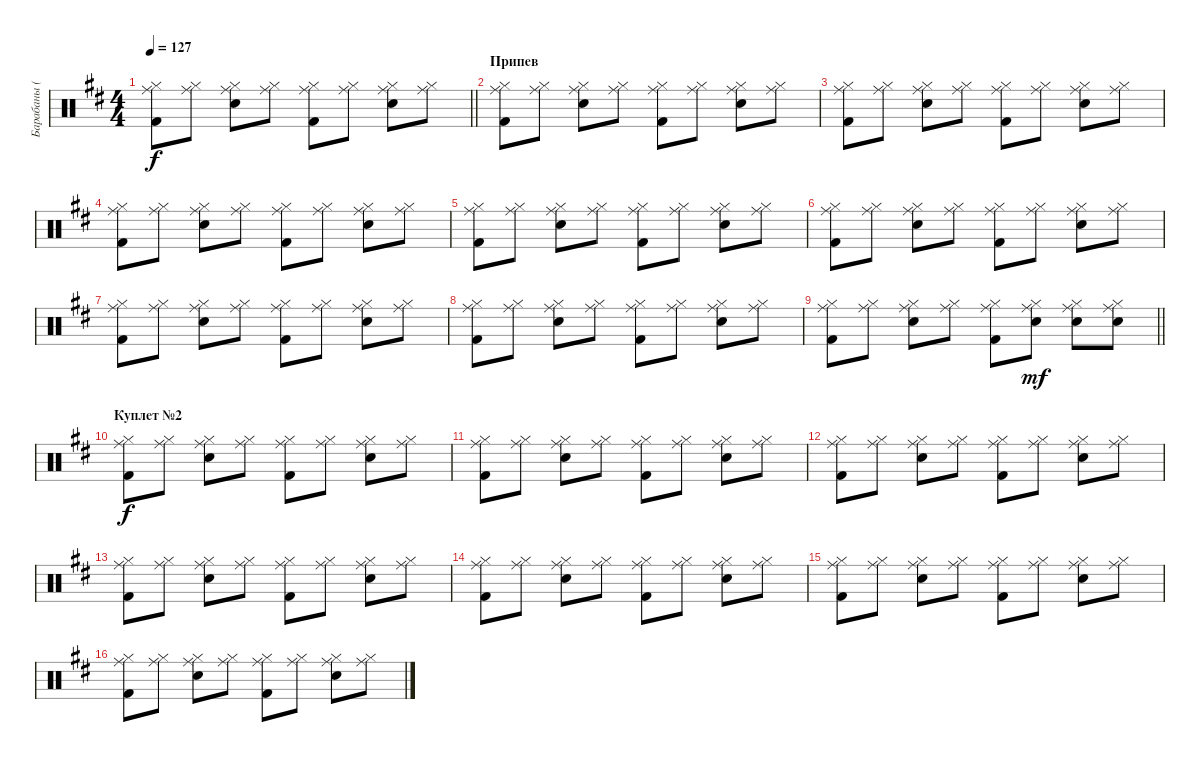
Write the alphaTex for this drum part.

\track ("Барабаны (Е.Летов)" "Барабаны (") {instrument percussion}
\staff {score}
\articulation defaults
\ts (4 4)
\tempo 127
\clef neutral
\barLineRight lightlight
\ks d
("Kick (hit) 2" "Ride (middle)" "Hi-Hat (closed)").8{dy f} ("Ride (middle)" "Hi-Hat (closed)").8 ("Snare (hit) 2" "Ride (middle)" "Hi-Hat (closed)").8 ("Ride (middle)" "Hi-Hat (closed)").8 ("Kick (hit) 2" "Ride (middle)" "Hi-Hat (closed)").8 ("Ride (middle)" "Hi-Hat (closed)").8 ("Snare (hit) 2" "Ride (middle)" "Hi-Hat (closed)").8 ("Ride (middle)" "Hi-Hat (closed)").8 |
\section ("" "Припев")
("Kick (hit) 2" "Ride (middle)" "Hi-Hat (closed)").8 ("Ride (middle)" "Hi-Hat (closed)").8 ("Snare (hit) 2" "Ride (middle)" "Hi-Hat (closed)").8 ("Ride (middle)" "Hi-Hat (closed)").8 ("Kick (hit) 2" "Ride (middle)" "Hi-Hat (closed)").8 ("Ride (middle)" "Hi-Hat (closed)").8 ("Snare (hit) 2" "Ride (middle)" "Hi-Hat (closed)").8 ("Ride (middle)" "Hi-Hat (closed)").8 |
("Kick (hit) 2" "Ride (middle)" "Hi-Hat (closed)").8 ("Ride (middle)" "Hi-Hat (closed)").8 ("Snare (hit) 2" "Ride (middle)" "Hi-Hat (closed)").8 ("Ride (middle)" "Hi-Hat (closed)").8 ("Kick (hit) 2" "Ride (middle)" "Hi-Hat (closed)").8 ("Ride (middle)" "Hi-Hat (closed)").8 ("Snare (hit) 2" "Ride (middle)" "Hi-Hat (closed)").8 ("Ride (middle)" "Hi-Hat (closed)").8 |
("Kick (hit) 2" "Ride (middle)" "Hi-Hat (closed)").8 ("Ride (middle)" "Hi-Hat (closed)").8 ("Snare (hit) 2" "Ride (middle)" "Hi-Hat (closed)").8 ("Ride (middle)" "Hi-Hat (closed)").8 ("Kick (hit) 2" "Ride (middle)" "Hi-Hat (closed)").8 ("Ride (middle)" "Hi-Hat (closed)").8 ("Snare (hit) 2" "Ride (middle)" "Hi-Hat (closed)").8 ("Ride (middle)" "Hi-Hat (closed)").8 |
("Kick (hit) 2" "Ride (middle)" "Hi-Hat (closed)").8 ("Ride (middle)" "Hi-Hat (closed)").8 ("Snare (hit) 2" "Ride (middle)" "Hi-Hat (closed)").8 ("Ride (middle)" "Hi-Hat (closed)").8 ("Kick (hit) 2" "Ride (middle)" "Hi-Hat (closed)").8 ("Ride (middle)" "Hi-Hat (closed)").8 ("Snare (hit) 2" "Ride (middle)" "Hi-Hat (closed)").8 ("Ride (middle)" "Hi-Hat (closed)").8 |
("Kick (hit) 2" "Ride (middle)" "Hi-Hat (closed)").8 ("Ride (middle)" "Hi-Hat (closed)").8 ("Snare (hit) 2" "Ride (middle)" "Hi-Hat (closed)").8 ("Ride (middle)" "Hi-Hat (closed)").8 ("Kick (hit) 2" "Ride (middle)" "Hi-Hat (closed)").8 ("Ride (middle)" "Hi-Hat (closed)").8 ("Snare (hit) 2" "Ride (middle)" "Hi-Hat (closed)").8 ("Ride (middle)" "Hi-Hat (closed)").8 |
("Kick (hit) 2" "Ride (middle)" "Hi-Hat (closed)").8 ("Ride (middle)" "Hi-Hat (closed)").8 ("Snare (hit) 2" "Ride (middle)" "Hi-Hat (closed)").8 ("Ride (middle)" "Hi-Hat (closed)").8 ("Kick (hit) 2" "Ride (middle)" "Hi-Hat (closed)").8 ("Ride (middle)" "Hi-Hat (closed)").8 ("Snare (hit) 2" "Ride (middle)" "Hi-Hat (closed)").8 ("Ride (middle)" "Hi-Hat (closed)").8 |
("Kick (hit) 2" "Ride (middle)" "Hi-Hat (closed)").8 ("Ride (middle)" "Hi-Hat (closed)").8 ("Snare (hit) 2" "Ride (middle)" "Hi-Hat (closed)").8 ("Ride (middle)" "Hi-Hat (closed)").8 ("Kick (hit) 2" "Ride (middle)" "Hi-Hat (closed)").8 ("Ride (middle)" "Hi-Hat (closed)").8 ("Snare (hit) 2" "Ride (middle)" "Hi-Hat (closed)").8 ("Ride (middle)" "Hi-Hat (closed)").8 |
\barLineRight lightlight
("Kick (hit) 2" "Ride (middle)" "Hi-Hat (closed)").8 ("Ride (middle)" "Hi-Hat (closed)").8 ("Snare (hit) 2" "Ride (middle)" "Hi-Hat (closed)").8 ("Ride (middle)" "Hi-Hat (closed)").8 ("Kick (hit) 2" "Ride (middle)" "Hi-Hat (closed)").8 ("Snare (hit) 2" "Ride (middle)" "Hi-Hat (closed)").8{dy mf} ("Snare (hit) 2" "Ride (middle)" "Hi-Hat (closed)").8 ("Snare (hit) 2" "Ride (middle)" "Hi-Hat (closed)").8 |
\section ("" "Куплет №2")
("Kick (hit) 2" "Ride (middle)" "Hi-Hat (closed)").8{dy f} ("Ride (middle)" "Hi-Hat (closed)").8 ("Snare (hit) 2" "Ride (middle)" "Hi-Hat (closed)").8 ("Ride (middle)" "Hi-Hat (closed)").8 ("Kick (hit) 2" "Ride (middle)" "Hi-Hat (closed)").8 ("Ride (middle)" "Hi-Hat (closed)").8 ("Snare (hit) 2" "Ride (middle)" "Hi-Hat (closed)").8 ("Ride (middle)" "Hi-Hat (closed)").8 |
("Kick (hit) 2" "Ride (middle)" "Hi-Hat (closed)").8 ("Ride (middle)" "Hi-Hat (closed)").8 ("Snare (hit) 2" "Ride (middle)" "Hi-Hat (closed)").8 ("Ride (middle)" "Hi-Hat (closed)").8 ("Kick (hit) 2" "Ride (middle)" "Hi-Hat (closed)").8 ("Ride (middle)" "Hi-Hat (closed)").8 ("Snare (hit) 2" "Ride (middle)" "Hi-Hat (closed)").8 ("Ride (middle)" "Hi-Hat (closed)").8 |
("Kick (hit) 2" "Ride (middle)" "Hi-Hat (closed)").8 ("Ride (middle)" "Hi-Hat (closed)").8 ("Snare (hit) 2" "Ride (middle)" "Hi-Hat (closed)").8 ("Ride (middle)" "Hi-Hat (closed)").8 ("Kick (hit) 2" "Ride (middle)" "Hi-Hat (closed)").8 ("Ride (middle)" "Hi-Hat (closed)").8 ("Snare (hit) 2" "Ride (middle)" "Hi-Hat (closed)").8 ("Ride (middle)" "Hi-Hat (closed)").8 |
("Kick (hit) 2" "Ride (middle)" "Hi-Hat (closed)").8 ("Ride (middle)" "Hi-Hat (closed)").8 ("Snare (hit) 2" "Ride (middle)" "Hi-Hat (closed)").8 ("Ride (middle)" "Hi-Hat (closed)").8 ("Kick (hit) 2" "Ride (middle)" "Hi-Hat (closed)").8 ("Ride (middle)" "Hi-Hat (closed)").8 ("Snare (hit) 2" "Ride (middle)" "Hi-Hat (closed)").8 ("Ride (middle)" "Hi-Hat (closed)").8 |
("Kick (hit) 2" "Ride (middle)" "Hi-Hat (closed)").8 ("Ride (middle)" "Hi-Hat (closed)").8 ("Snare (hit) 2" "Ride (middle)" "Hi-Hat (closed)").8 ("Ride (middle)" "Hi-Hat (closed)").8 ("Kick (hit) 2" "Ride (middle)" "Hi-Hat (closed)").8 ("Ride (middle)" "Hi-Hat (closed)").8 ("Snare (hit) 2" "Ride (middle)" "Hi-Hat (closed)").8 ("Ride (middle)" "Hi-Hat (closed)").8 |
("Kick (hit) 2" "Ride (middle)" "Hi-Hat (closed)").8 ("Ride (middle)" "Hi-Hat (closed)").8 ("Snare (hit) 2" "Ride (middle)" "Hi-Hat (closed)").8 ("Ride (middle)" "Hi-Hat (closed)").8 ("Kick (hit) 2" "Ride (middle)" "Hi-Hat (closed)").8 ("Ride (middle)" "Hi-Hat (closed)").8 ("Snare (hit) 2" "Ride (middle)" "Hi-Hat (closed)").8 ("Ride (middle)" "Hi-Hat (closed)").8 |
("Kick (hit) 2" "Ride (middle)" "Hi-Hat (closed)").8 ("Ride (middle)" "Hi-Hat (closed)").8 ("Snare (hit) 2" "Ride (middle)" "Hi-Hat (closed)").8 ("Ride (middle)" "Hi-Hat (closed)").8 ("Kick (hit) 2" "Ride (middle)" "Hi-Hat (closed)").8 ("Ride (middle)" "Hi-Hat (closed)").8 ("Snare (hit) 2" "Ride (middle)" "Hi-Hat (closed)").8 ("Ride (middle)" "Hi-Hat (closed)").8
